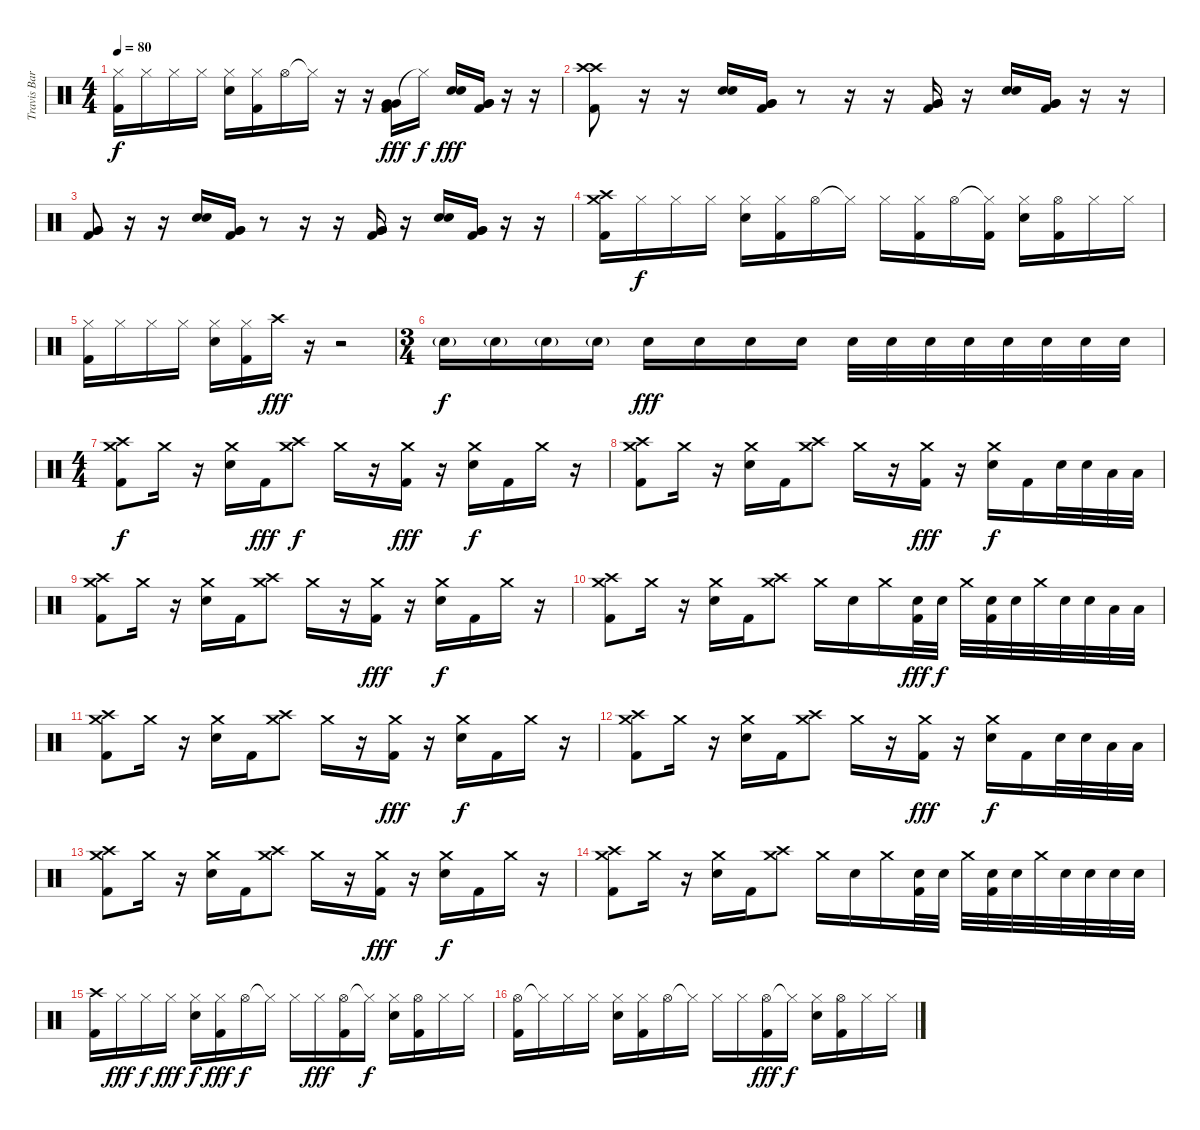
\track ("Travis Barker" "Travis Bar") {instrument percussion}
\staff {score}
\articulation defaults
\ts (4 4)
\tempo 80
\clef neutral
\ks c
("Hi-Hat (closed)" "Kick (hit) 2").16{dy f} "Hi-Hat (closed)".16 "Hi-Hat (closed)".16 "Hi-Hat (closed)".16 ("Hi-Hat (closed)" "Electric Snare (hit)").16 ("Hi-Hat (closed)" "Kick (hit) 2").16 "Hi-Hat (open)".16 "Hi-Hat (closed)"{t}.16 r.16 r.16 ("Very Low Tom (hit)" "Very Low Tom (hit)" "Kick (hit) 2").16{dy fff} "Hi-Hat (closed)"{t}.16{dy f} ("Electric Snare (hit)" "Electric Snare (hit)").16{dy fff} ("Very Low Tom (hit)" "Very Low Tom (hit)" "Kick (hit) 2").16 r.16 r.16 |
("Crash high (hit)" "Crash high (hit)" "Kick (hit) 2").8 r.16 r.16 ("Electric Snare (hit)" "Electric Snare (hit)").16 ("Very Low Tom (hit)" "Very Low Tom (hit)" "Kick (hit) 2").16 r.8 r.16 r.16 ("Very Low Tom (hit)" "Very Low Tom (hit)" "Kick (hit) 2").16 r.16 ("Electric Snare (hit)" "Electric Snare (hit)").16 ("Very Low Tom (hit)" "Very Low Tom (hit)" "Kick (hit) 2").16 r.16 r.16 |
("Very Low Tom (hit)" "Very Low Tom (hit)" "Kick (hit) 2").8 r.16 r.16 ("Electric Snare (hit)" "Electric Snare (hit)").16 ("Very Low Tom (hit)" "Very Low Tom (hit)" "Kick (hit) 2").16 r.8 r.16 r.16 ("Very Low Tom (hit)" "Very Low Tom (hit)" "Kick (hit) 2").16 r.16 ("Electric Snare (hit)" "Electric Snare (hit)").16 ("Very Low Tom (hit)" "Very Low Tom (hit)" "Kick (hit) 2").16 r.16 r.16 |
("Crash high (hit)" "Crash medium (hit)" "Kick (hit) 2").16 "Hi-Hat (closed)".16{dy f} "Hi-Hat (closed)".16 "Hi-Hat (closed)".16 ("Hi-Hat (closed)" "Electric Snare (hit)").16 ("Hi-Hat (closed)" "Kick (hit) 2").16 "Hi-Hat (open)".16 "Hi-Hat (closed)"{t}.16 "Hi-Hat (closed)".16 ("Hi-Hat (closed)" "Kick (hit) 2").16 "Hi-Hat (open)".16 ("Hi-Hat (closed)"{t} "Kick (hit) 2").16 ("Hi-Hat (closed)" "Electric Snare (hit)").16 ("Hi-Hat (open)" "Kick (hit) 2").16 "Hi-Hat (closed)".16 "Hi-Hat (closed)".16 |
("Hi-Hat (closed)" "Kick (hit) 2").16 "Hi-Hat (closed)".16 "Hi-Hat (closed)".16 "Hi-Hat (closed)".16 ("Hi-Hat (closed)" "Electric Snare (hit)").16 ("Hi-Hat (closed)" "Kick (hit) 2").16 "Crash high (hit)".16{dy fff} r.16 r.2 |
\ts (3 4)
"Electric Snare (hit)"{g}.16{dy f} "Electric Snare (hit)"{g}.16 "Electric Snare (hit)"{g}.16 "Electric Snare (hit)"{g}.16 "Electric Snare (hit)".16{dy fff} "Electric Snare (hit)".16 "Electric Snare (hit)".16 "Electric Snare (hit)".16 "Electric Snare (hit)".32 "Electric Snare (hit)".32 "Electric Snare (hit)".32 "Electric Snare (hit)".32 "Electric Snare (hit)".32 "Electric Snare (hit)".32 "Electric Snare (hit)".32 "Electric Snare (hit)".32 |
\ts (4 4)
("Crash high (hit)" "Crash medium (hit)" "Kick (hit) 2").8{dy f} "Crash medium (hit)".16 r.16 ("Crash medium (hit)" "Electric Snare (hit)").16 "Kick (hit) 2".16{dy fff} ("Crash high (hit)" "Crash medium (hit)").8{dy f} "Crash medium (hit)".16 r.16 ("Crash medium (hit)" "Kick (hit) 2").16{dy fff} r.16 ("Crash medium (hit)" "Electric Snare (hit)").16{dy f} "Kick (hit) 2".16 "Crash medium (hit)".16 r.16 |
("Crash high (hit)" "Crash medium (hit)" "Kick (hit) 2").8 "Crash medium (hit)".16 r.16 ("Crash medium (hit)" "Electric Snare (hit)").16 "Kick (hit) 2".16 ("Crash high (hit)" "Crash medium (hit)").8 "Crash medium (hit)".16 r.16 ("Crash medium (hit)" "Kick (hit) 2").16{dy fff} r.16 ("Crash medium (hit)" "Electric Snare (hit)").16{dy f} "Kick (hit) 2".16 "Electric Snare (hit)".32 "Electric Snare (hit)".32 "Low Tom (hit)".32 "Low Tom (hit)".32 |
("Crash high (hit)" "Crash medium (hit)" "Kick (hit) 2").8 "Crash medium (hit)".16 r.16 ("Crash medium (hit)" "Electric Snare (hit)").16 "Kick (hit) 2".16 ("Crash high (hit)" "Crash medium (hit)").8 "Crash medium (hit)".16 r.16 ("Crash medium (hit)" "Kick (hit) 2").16{dy fff} r.16 ("Crash medium (hit)" "Electric Snare (hit)").16{dy f} "Kick (hit) 2".16 "Crash medium (hit)".16 r.16 |
("Crash high (hit)" "Crash medium (hit)" "Kick (hit) 2").8 "Crash medium (hit)".16 r.16 ("Crash medium (hit)" "Electric Snare (hit)").16 "Kick (hit) 2".16 ("Crash high (hit)" "Crash medium (hit)").8 "Crash medium (hit)".16 "Electric Snare (hit)".16 "Crash medium (hit)".16 ("Electric Snare (hit)" "Kick (hit) 2").32{dy fff} "Electric Snare (hit)".32{dy f} "Crash medium (hit)".32 ("Electric Snare (hit)" "Kick (hit) 2").32 "Electric Snare (hit)".32 "Crash medium (hit)".32 "Electric Snare (hit)".32 "Electric Snare (hit)".32 "Low Tom (hit)".32 "Low Tom (hit)".32 |
("Crash high (hit)" "Crash medium (hit)" "Kick (hit) 2").8 "Crash medium (hit)".16 r.16 ("Crash medium (hit)" "Electric Snare (hit)").16 "Kick (hit) 2".16 ("Crash high (hit)" "Crash medium (hit)").8 "Crash medium (hit)".16 r.16 ("Crash medium (hit)" "Kick (hit) 2").16{dy fff} r.16 ("Crash medium (hit)" "Electric Snare (hit)").16{dy f} "Kick (hit) 2".16 "Crash medium (hit)".16 r.16 |
("Crash high (hit)" "Crash medium (hit)" "Kick (hit) 2").8 "Crash medium (hit)".16 r.16 ("Crash medium (hit)" "Electric Snare (hit)").16 "Kick (hit) 2".16 ("Crash high (hit)" "Crash medium (hit)").8 "Crash medium (hit)".16 r.16 ("Crash medium (hit)" "Kick (hit) 2").16{dy fff} r.16 ("Crash medium (hit)" "Electric Snare (hit)").16{dy f} "Kick (hit) 2".16 "Electric Snare (hit)".32 "Electric Snare (hit)".32 "Low Tom (hit)".32 "Low Tom (hit)".32 |
("Crash high (hit)" "Crash medium (hit)" "Kick (hit) 2").8 "Crash medium (hit)".16 r.16 ("Crash medium (hit)" "Electric Snare (hit)").16 "Kick (hit) 2".16 ("Crash high (hit)" "Crash medium (hit)").8 "Crash medium (hit)".16 r.16 ("Crash medium (hit)" "Kick (hit) 2").16{dy fff} r.16 ("Crash medium (hit)" "Electric Snare (hit)").16{dy f} "Kick (hit) 2".16 "Crash medium (hit)".16 r.16 |
("Crash high (hit)" "Crash medium (hit)" "Kick (hit) 2").8 "Crash medium (hit)".16 r.16 ("Crash medium (hit)" "Electric Snare (hit)").16 "Kick (hit) 2".16 ("Crash high (hit)" "Crash medium (hit)").8 "Crash medium (hit)".16 "Electric Snare (hit)".16 "Crash medium (hit)".16 ("Electric Snare (hit)" "Kick (hit) 2").32 "Electric Snare (hit)".32 "Crash medium (hit)".32 ("Electric Snare (hit)" "Kick (hit) 2").32 "Electric Snare (hit)".32 "Crash medium (hit)".32 "Electric Snare (hit)".32 "Electric Snare (hit)".32 "Electric Snare (hit)".32 "Electric Snare (hit)".32 |
("Crash high (hit)" "Kick (hit) 2").16 "Hi-Hat (closed)".16{dy fff} "Hi-Hat (closed)".16{dy f} "Hi-Hat (closed)".16{dy fff} ("Hi-Hat (closed)" "Electric Snare (hit)").16{dy f} ("Hi-Hat (closed)" "Kick (hit) 2").16{dy fff} "Hi-Hat (open)".16{dy f} "Hi-Hat (closed)"{t}.16 "Hi-Hat (closed)".16 "Hi-Hat (closed)".16{dy fff} ("Hi-Hat (open)" "Kick (hit) 2").16 "Hi-Hat (closed)"{t}.16{dy f} ("Hi-Hat (closed)" "Electric Snare (hit)").16 ("Hi-Hat (open)" "Kick (hit) 2").16 "Hi-Hat (closed)".16 "Hi-Hat (closed)".16 |
("Hi-Hat (open)" "Kick (hit) 2").16 "Hi-Hat (closed)"{t}.16 "Hi-Hat (closed)".16 "Hi-Hat (closed)".16 ("Hi-Hat (closed)" "Electric Snare (hit)").16 ("Hi-Hat (closed)" "Kick (hit) 2").16 "Hi-Hat (open)".16 "Hi-Hat (closed)"{t}.16 "Hi-Hat (closed)".16 "Hi-Hat (closed)".16 ("Hi-Hat (open)" "Kick (hit) 2").16{dy fff} "Hi-Hat (closed)"{t}.16{dy f} ("Hi-Hat (closed)" "Electric Snare (hit)").16 ("Hi-Hat (open)" "Kick (hit) 2").16 "Hi-Hat (closed)".16 "Hi-Hat (closed)".16
